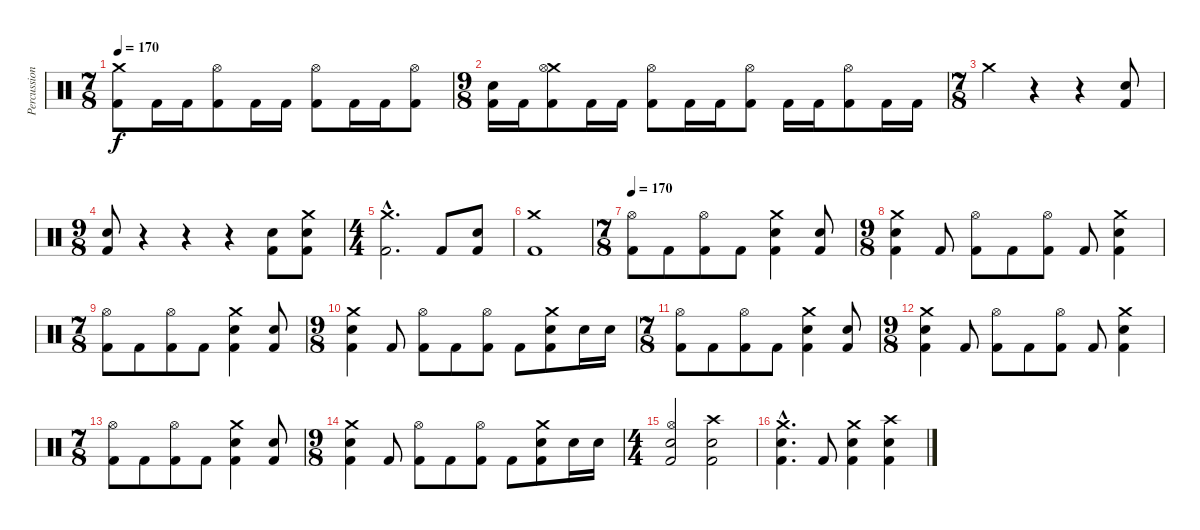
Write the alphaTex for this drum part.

\track ("Percussion" "Percussion") {instrument percussion}
\staff {score}
\articulation defaults
\ts (7 8)
\tempo 170
\clef neutral
\ks c
("Crash medium (hit)" "Kick (hit) 2").8{dy f} "Kick (hit) 2".16 "Kick (hit) 2".16 ("Hi-Hat (open)" "Kick (hit) 2").8 "Kick (hit) 2".16 "Kick (hit) 2".16 ("Hi-Hat (open)" "Kick (hit) 2").8 "Kick (hit) 2".16 "Kick (hit) 2".16 ("Hi-Hat (open)" "Kick (hit) 2").8 |
\ts (9 8)
("Snare (hit) 2" "Kick (hit) 2").16 "Kick (hit) 2".16 ("Crash medium (hit)" "Hi-Hat (open)" "Kick (hit) 2").8 "Kick (hit) 2".16 "Kick (hit) 2".16 ("Hi-Hat (open)" "Kick (hit) 2").8 "Kick (hit) 2".16 "Kick (hit) 2".16 ("Hi-Hat (open)" "Kick (hit) 2").8 "Kick (hit) 2".16 "Kick (hit) 2".16 ("Hi-Hat (open)" "Kick (hit) 2").8 "Kick (hit) 2".16 "Kick (hit) 2".16 |
\ts (7 8)
"Crash medium (hit)".4 r.4 r.4 ("Snare (hit) 2" "Kick (hit) 2").8 |
\ts (9 8)
("Snare (hit) 2" "Kick (hit) 2").8 r.4 r.4 r.4 ("Snare (hit) 2" "Kick (hit) 2").8 ("Crash medium (hit)" "Snare (hit) 2" "Kick (hit) 2").8 |
\ts (4 4)
("Crash medium (hit)"{hac} "Kick (hit) 2"{hac}).2{d} "Kick (hit) 2".8 ("Snare (hit) 2" "Kick (hit) 2").8 |
("Crash medium (hit)" "Kick (hit) 2").1 |
\ts (7 8)
\tempo 170
("Hi-Hat (open)" "Kick (hit) 2").8 "Kick (hit) 2".8 ("Hi-Hat (open)" "Kick (hit) 2").8 "Kick (hit) 2".8 ("Crash medium (hit)" "Snare (hit) 2" "Kick (hit) 2").4 ("Snare (hit) 2" "Kick (hit) 2").8 |
\ts (9 8)
("Crash medium (hit)" "Snare (hit) 2" "Kick (hit) 2").4 "Kick (hit) 2".8 ("Hi-Hat (open)" "Kick (hit) 2").8 "Kick (hit) 2".8 ("Hi-Hat (open)" "Kick (hit) 2").8 "Kick (hit) 2".8 ("Crash medium (hit)" "Snare (hit) 2" "Kick (hit) 2").4 |
\ts (7 8)
("Hi-Hat (open)" "Kick (hit) 2").8 "Kick (hit) 2".8 ("Hi-Hat (open)" "Kick (hit) 2").8 "Kick (hit) 2".8 ("Crash medium (hit)" "Snare (hit) 2" "Kick (hit) 2").4 ("Snare (hit) 2" "Kick (hit) 2").8 |
\ts (9 8)
("Crash medium (hit)" "Snare (hit) 2" "Kick (hit) 2").4 "Kick (hit) 2".8 ("Hi-Hat (open)" "Kick (hit) 2").8 "Kick (hit) 2".8 ("Hi-Hat (open)" "Kick (hit) 2").8 "Kick (hit) 2".8 ("Crash medium (hit)" "Snare (hit) 2" "Kick (hit) 2").8 "Snare (hit) 2".16 "Snare (hit) 2".16 |
\ts (7 8)
("Hi-Hat (open)" "Kick (hit) 2").8 "Kick (hit) 2".8 ("Hi-Hat (open)" "Kick (hit) 2").8 "Kick (hit) 2".8 ("Crash medium (hit)" "Snare (hit) 2" "Kick (hit) 2").4 ("Snare (hit) 2" "Kick (hit) 2").8 |
\ts (9 8)
("Crash medium (hit)" "Snare (hit) 2" "Kick (hit) 2").4 "Kick (hit) 2".8 ("Hi-Hat (open)" "Kick (hit) 2").8 "Kick (hit) 2".8 ("Hi-Hat (open)" "Kick (hit) 2").8 "Kick (hit) 2".8 ("Crash medium (hit)" "Snare (hit) 2" "Kick (hit) 2").4 |
\ts (7 8)
("Hi-Hat (open)" "Kick (hit) 2").8 "Kick (hit) 2".8 ("Hi-Hat (open)" "Kick (hit) 2").8 "Kick (hit) 2".8 ("Crash medium (hit)" "Snare (hit) 2" "Kick (hit) 2").4 ("Snare (hit) 2" "Kick (hit) 2").8 |
\ts (9 8)
("Crash medium (hit)" "Snare (hit) 2" "Kick (hit) 2").4 "Kick (hit) 2".8 ("Hi-Hat (open)" "Kick (hit) 2").8 "Kick (hit) 2".8 ("Hi-Hat (open)" "Kick (hit) 2").8 "Kick (hit) 2".8 ("Crash medium (hit)" "Snare (hit) 2" "Kick (hit) 2").8 "Snare (hit) 2".16 "Snare (hit) 2".16 |
\ts (4 4)
("Hi-Hat (open)" "Snare (hit) 2" "Kick (hit) 2").2 ("Crash high (hit)" "Snare (hit) 2" "Kick (hit) 2").2 |
("Crash medium (hit)"{hac} "Snare (hit) 2"{hac} "Kick (hit) 2"{hac}).4{d} "Kick (hit) 2".8 ("Crash medium (hit)" "Snare (hit) 2" "Kick (hit) 2").4 ("Crash high (hit)" "Snare (hit) 2" "Kick (hit) 2").4
